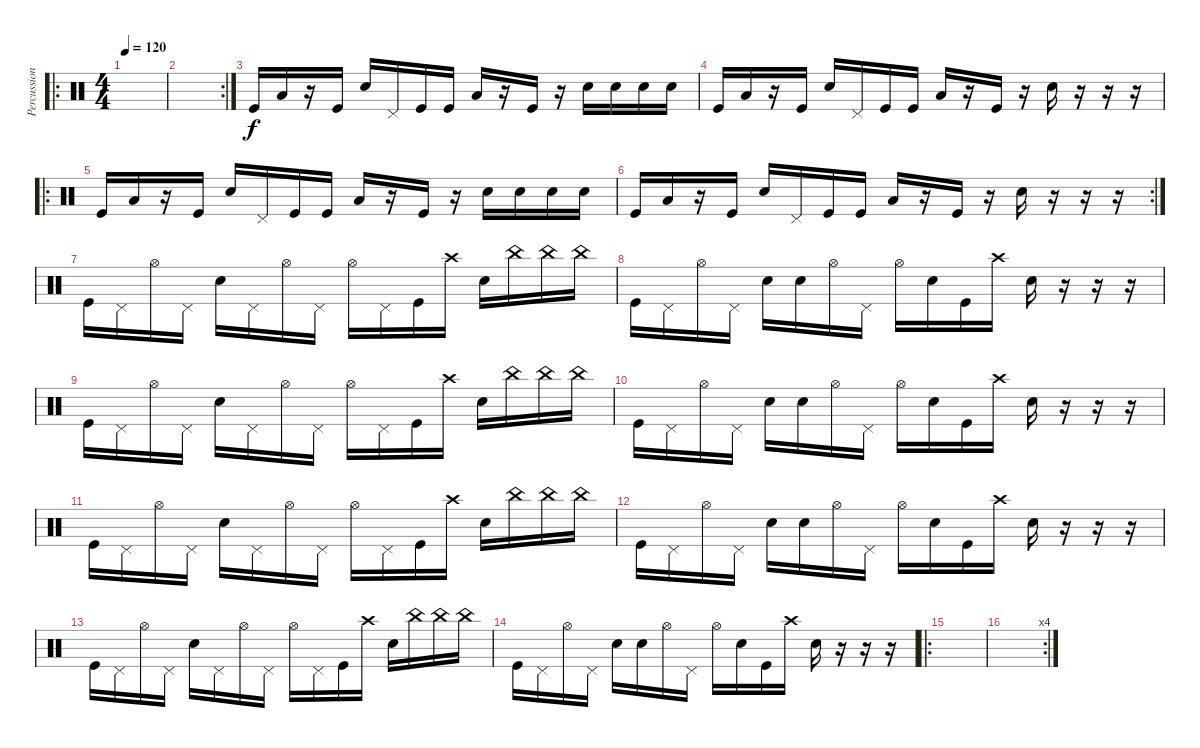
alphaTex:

\track ("Percussions" "Percussion") {instrument percussion}
\staff {score}
\articulation defaults
\ro
\ts (4 4)
\tempo 120
\clef neutral
\ks c
|
\rc 2
|
"Kick (hit)".16 "Low Tom (hit)".16 r.16 "Kick (hit)".16 "Electric Snare (hit)".16 "Pedal Hi-Hat (hit)".16 "Kick (hit)".16 "Kick (hit)".16 "Low Tom (hit)".16 r.16 "Kick (hit)".16 r.16 "Electric Snare (hit)".16 "Hand Clap (hit)".16 "Hand Clap (hit)".16 "Hand Clap (hit)".16 |
"Kick (hit)".16 "Low Tom (hit)".16 r.16 "Kick (hit)".16 "Electric Snare (hit)".16 "Pedal Hi-Hat (hit)".16 "Kick (hit)".16 "Kick (hit)".16 "Low Tom (hit)".16 r.16 "Kick (hit)".16 r.16 "Electric Snare (hit)".16 r.16 r.16 r.16 |
\ro "Kick (hit)".16 "Low Tom (hit)".16
r.16 "Kick (hit)".16 "Electric Snare (hit)".16 "Pedal Hi-Hat (hit)".16 "Kick (hit)".16 "Kick (hit)".16 "Low Tom (hit)".16 r.16 "Kick (hit)".16 r.16 "Electric Snare (hit)".16 "Hand Clap (hit)".16 "Hand Clap (hit)".16 "Hand Clap (hit)".16 |
\rc 2 "Kick (hit)".16 "Low Tom (hit)".16
r.16 "Kick (hit)".16 "Electric Snare (hit)".16 "Pedal Hi-Hat (hit)".16 "Kick (hit)".16 "Kick (hit)".16 "Low Tom (hit)".16 r.16 "Kick (hit)".16 r.16 "Electric Snare (hit)".16 r.16 r.16 r.16 |
"Kick (hit)".16 "Pedal Hi-Hat (hit)".16 "Hi-Hat (open)".16 "Pedal Hi-Hat (hit)".16 "Electric Snare (hit)".16 "Pedal Hi-Hat (hit)".16 "Hi-Hat (open)".16 "Pedal Hi-Hat (hit)".16 "Hi-Hat (open)".16 "Pedal Hi-Hat (hit)".16 "Kick (hit)".16 "Crash high (hit)".16 "Electric Snare (hit)".16 "China (hit)".16 "China (hit)".16 "China (hit)".16 |
"Kick (hit)".16 "Pedal Hi-Hat (hit)".16 "Hi-Hat (open)".16 "Pedal Hi-Hat (hit)".16 "Electric Snare (hit)".16 "Electric Snare (hit)".16 "Hi-Hat (open)".16 "Pedal Hi-Hat (hit)".16 "Hi-Hat (open)".16 "Electric Snare (hit)".16 "Kick (hit)".16 "Crash high (hit)".16 "Electric Snare (hit)".16 r.16 r.16 r.16 |
"Kick (hit)".16 "Pedal Hi-Hat (hit)".16 "Hi-Hat (open)".16 "Pedal Hi-Hat (hit)".16 "Electric Snare (hit)".16 "Pedal Hi-Hat (hit)".16 "Hi-Hat (open)".16 "Pedal Hi-Hat (hit)".16 "Hi-Hat (open)".16 "Pedal Hi-Hat (hit)".16 "Kick (hit)".16 "Crash high (hit)".16 "Electric Snare (hit)".16 "China (hit)".16 "China (hit)".16 "China (hit)".16 |
"Kick (hit)".16 "Pedal Hi-Hat (hit)".16 "Hi-Hat (open)".16 "Pedal Hi-Hat (hit)".16 "Electric Snare (hit)".16 "Electric Snare (hit)".16 "Hi-Hat (open)".16 "Pedal Hi-Hat (hit)".16 "Hi-Hat (open)".16 "Electric Snare (hit)".16 "Kick (hit)".16 "Crash high (hit)".16 "Electric Snare (hit)".16 r.16 r.16 r.16 |
"Kick (hit)".16 "Pedal Hi-Hat (hit)".16 "Hi-Hat (open)".16 "Pedal Hi-Hat (hit)".16 "Electric Snare (hit)".16 "Pedal Hi-Hat (hit)".16 "Hi-Hat (open)".16 "Pedal Hi-Hat (hit)".16 "Hi-Hat (open)".16 "Pedal Hi-Hat (hit)".16 "Kick (hit)".16 "Crash high (hit)".16 "Electric Snare (hit)".16 "China (hit)".16 "China (hit)".16 "China (hit)".16 |
"Kick (hit)".16 "Pedal Hi-Hat (hit)".16 "Hi-Hat (open)".16 "Pedal Hi-Hat (hit)".16 "Electric Snare (hit)".16 "Electric Snare (hit)".16 "Hi-Hat (open)".16 "Pedal Hi-Hat (hit)".16 "Hi-Hat (open)".16 "Electric Snare (hit)".16 "Kick (hit)".16 "Crash high (hit)".16 "Electric Snare (hit)".16 r.16 r.16 r.16 |
"Kick (hit)".16 "Pedal Hi-Hat (hit)".16 "Hi-Hat (open)".16 "Pedal Hi-Hat (hit)".16 "Electric Snare (hit)".16 "Pedal Hi-Hat (hit)".16 "Hi-Hat (open)".16 "Pedal Hi-Hat (hit)".16 "Hi-Hat (open)".16 "Pedal Hi-Hat (hit)".16 "Kick (hit)".16 "Crash high (hit)".16 "Electric Snare (hit)".16 "China (hit)".16 "China (hit)".16 "China (hit)".16 |
"Kick (hit)".16 "Pedal Hi-Hat (hit)".16 "Hi-Hat (open)".16 "Pedal Hi-Hat (hit)".16 "Electric Snare (hit)".16 "Electric Snare (hit)".16 "Hi-Hat (open)".16 "Pedal Hi-Hat (hit)".16 "Hi-Hat (open)".16 "Electric Snare (hit)".16 "Kick (hit)".16 "Crash high (hit)".16 "Electric Snare (hit)".16 r.16 r.16 r.16 |
\ro
|
\rc 4
